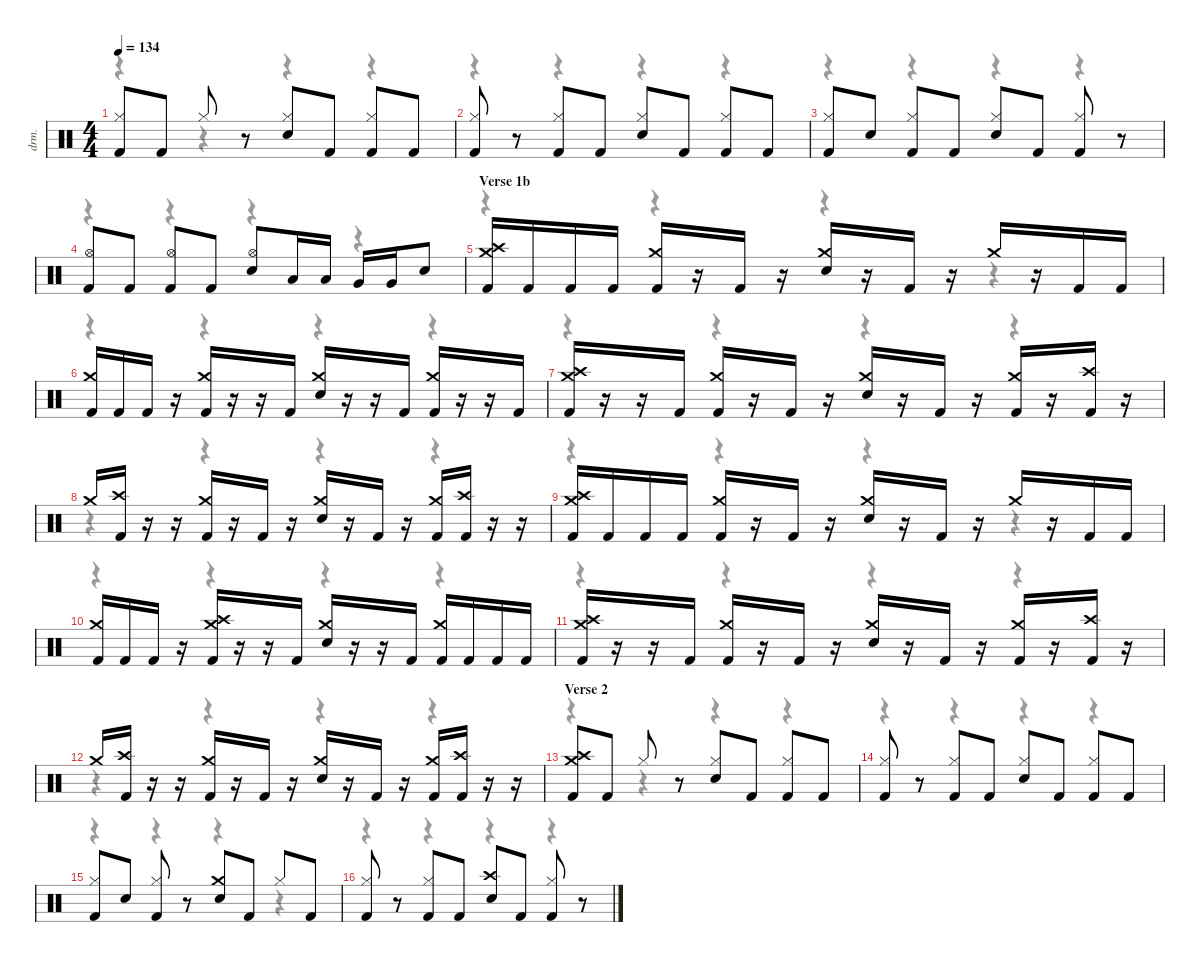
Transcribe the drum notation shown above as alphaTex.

\defaultSystemsLayout 4
\hideDynamics
\bracketExtendMode nobrackets
\track ("Alex Ballew" "drm.") {instrument percussion}
\staff {score}
\articulation defaults
\voice
\ts (4 4)
\tempo 134
\clef neutral
\ks c
("Hi-Hat (closed)" "Kick (hit) 2").8{dy f} "Kick (hit) 2".8 "Hi-Hat (closed)".8 r.8 ("Hi-Hat (closed)" "Snare (hit) 2").8 "Kick (hit) 2".8 ("Hi-Hat (closed)" "Kick (hit) 2").8 "Kick (hit) 2".8 |
("Hi-Hat (closed)" "Kick (hit) 2").8 r.8 ("Hi-Hat (closed)" "Kick (hit) 2").8 "Kick (hit) 2".8 ("Hi-Hat (closed)" "Snare (hit) 2").8 "Kick (hit) 2".8 ("Hi-Hat (closed)" "Kick (hit) 2").8 "Kick (hit) 2".8 |
("Hi-Hat (closed)" "Kick (hit) 2").8 "Snare (hit) 2".8 ("Hi-Hat (closed)" "Kick (hit) 2").8 "Kick (hit) 2".8 ("Hi-Hat (closed)" "Snare (hit) 2").8 "Kick (hit) 2".8 ("Hi-Hat (closed)" "Kick (hit) 2").8 r.8 |
("Hi-Hat (open)" "Kick (hit) 2").8 "Kick (hit) 2".8 ("Hi-Hat (open)" "Kick (hit) 2").8 "Kick (hit) 2".8 ("Hi-Hat (open)" "Snare (hit) 2").8 "Low Tom (hit)".16 "Low Tom (hit)".16 "Very Low Tom (hit)".16 "Very Low Tom (hit)".16 "Snare (hit) 2".8 |
\section ("" "Verse 1b")
("Crash medium (hit)" "Crash high (hit)" "Kick (hit) 2").16 "Kick (hit) 2".16 "Kick (hit) 2".16 "Kick (hit) 2".16 ("Crash medium (hit)" "Kick (hit) 2").16 r.16 "Kick (hit) 2".16 r.16 ("Crash medium (hit)" "Snare (hit) 2").16 r.16 "Kick (hit) 2".16 r.16 "Crash medium (hit)".16 r.16 "Kick (hit) 2".16 "Kick (hit) 2".16 |
("Crash medium (hit)" "Kick (hit) 2").16 "Kick (hit) 2".16 "Kick (hit) 2".16 r.16 ("Crash medium (hit)" "Kick (hit) 2").16 r.16 r.16 "Kick (hit) 2".16 ("Crash medium (hit)" "Snare (hit) 2").16 r.16 r.16 "Kick (hit) 2".16 ("Crash medium (hit)" "Kick (hit) 2").16 r.16 r.16 "Kick (hit) 2".16 |
("Crash medium (hit)" "Crash high (hit)" "Kick (hit) 2").16 r.16 r.16 "Kick (hit) 2".16 ("Crash medium (hit)" "Kick (hit) 2").16 r.16 "Kick (hit) 2".16 r.16 ("Crash medium (hit)" "Snare (hit) 2").16 r.16 "Kick (hit) 2".16 r.16 ("Crash medium (hit)" "Kick (hit) 2").16 r.16 ("Crash high (hit)" "Kick (hit) 2").16 r.16 |
"Crash medium (hit)".16 ("Crash high (hit)" "Kick (hit) 2").16 r.16 r.16 ("Crash medium (hit)" "Kick (hit) 2").16 r.16 "Kick (hit) 2".16 r.16 ("Crash medium (hit)" "Snare (hit) 2").16 r.16 "Kick (hit) 2".16 r.16 ("Crash medium (hit)" "Kick (hit) 2").16 ("Crash high (hit)" "Kick (hit) 2").16 r.16 r.16 |
("Crash medium (hit)" "Crash high (hit)" "Kick (hit) 2").16 "Kick (hit) 2".16 "Kick (hit) 2".16 "Kick (hit) 2".16 ("Crash medium (hit)" "Kick (hit) 2").16 r.16 "Kick (hit) 2".16 r.16 ("Crash medium (hit)" "Snare (hit) 2").16 r.16 "Kick (hit) 2".16 r.16 "Crash medium (hit)".16 r.16 "Kick (hit) 2".16 "Kick (hit) 2".16 |
("Crash medium (hit)" "Kick (hit) 2").16 "Kick (hit) 2".16 "Kick (hit) 2".16 r.16 ("Crash medium (hit)" "Crash high (hit)" "Kick (hit) 2").16 r.16 r.16 "Kick (hit) 2".16 ("Crash medium (hit)" "Snare (hit) 2").16 r.16 r.16 "Kick (hit) 2".16 ("Crash medium (hit)" "Kick (hit) 2").16 "Kick (hit) 2".16 "Kick (hit) 2".16 "Kick (hit) 2".16 |
("Crash medium (hit)" "Crash high (hit)" "Kick (hit) 2").16 r.16 r.16 "Kick (hit) 2".16 ("Crash medium (hit)" "Kick (hit) 2").16 r.16 "Kick (hit) 2".16 r.16 ("Crash medium (hit)" "Snare (hit) 2").16 r.16 "Kick (hit) 2".16 r.16 ("Crash medium (hit)" "Kick (hit) 2").16 r.16 ("Crash high (hit)" "Kick (hit) 2").16 r.16 |
"Crash medium (hit)".16 ("Crash high (hit)" "Kick (hit) 2").16 r.16 r.16 ("Crash medium (hit)" "Kick (hit) 2").16 r.16 "Kick (hit) 2".16 r.16 ("Crash medium (hit)" "Snare (hit) 2").16 r.16 "Kick (hit) 2".16 r.16 ("Crash medium (hit)" "Kick (hit) 2").16 ("Crash high (hit)" "Kick (hit) 2").16 r.16 r.16 |
\section ("" "Verse 2")
("Crash medium (hit)" "Crash high (hit)" "Kick (hit) 2").8 "Kick (hit) 2".8 "Hi-Hat (closed)".8 r.8 ("Hi-Hat (closed)" "Snare (hit) 2").8 "Kick (hit) 2".8 ("Hi-Hat (closed)" "Kick (hit) 2").8 "Kick (hit) 2".8 |
("Hi-Hat (closed)" "Kick (hit) 2").8 r.8 ("Hi-Hat (closed)" "Kick (hit) 2").8 "Kick (hit) 2".8 ("Hi-Hat (closed)" "Snare (hit) 2").8 "Kick (hit) 2".8 ("Hi-Hat (closed)" "Kick (hit) 2").8 "Kick (hit) 2".8 |
("Hi-Hat (closed)" "Kick (hit) 2").8 "Snare (hit) 2".8 ("Hi-Hat (closed)" "Kick (hit) 2").8 r.8 ("Crash medium (hit)" "Snare (hit) 2").8 "Kick (hit) 2".8 "Hi-Hat (closed)".8 "Kick (hit) 2".8 |
("Hi-Hat (closed)" "Kick (hit) 2").8 r.8 ("Hi-Hat (closed)" "Kick (hit) 2").8 "Kick (hit) 2".8 ("Crash high (hit)" "Snare (hit) 2").8 "Kick (hit) 2".8 ("Hi-Hat (closed)" "Kick (hit) 2").8 r.8
\voice
\clef neutral
\ottava regular
\simile none
\ks c
r.4{dy mf} r.4 r.4 r.4 |
r.4 r.4 r.4 r.4 |
r.4 r.4 r.4 r.4 |
r.4 r.4 r.4 r.4 |
r.4 r.4 r.4 r.4 |
r.4 r.4 r.4 r.4 |
r.4 r.4 r.4 r.4 |
r.4 r.4 r.4 r.4 |
r.4 r.4 r.4 r.4 |
r.4 r.4 r.4 r.4 |
r.4 r.4 r.4 r.4 |
r.4 r.4 r.4 r.4 |
r.4 r.4 r.4 r.4 |
r.4 r.4 r.4 r.4 |
r.4 r.4 r.4 r.4 |
r.4 r.4 r.4 r.4
